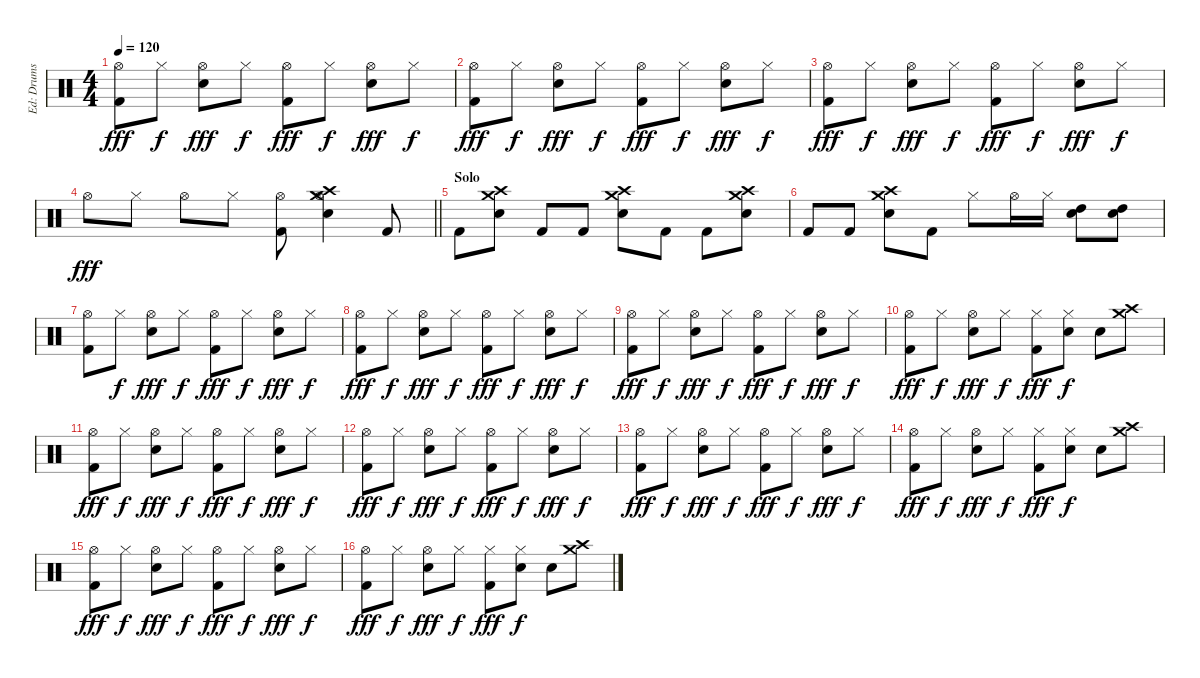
\track ("Ed: Drums" "Ed: Drums") {instrument percussion}
\staff {score}
\articulation defaults
\ts (4 4)
\tempo 120
\clef neutral
\ks c
("Hi-Hat (open)" "Kick (hit) 2").8{dy fff} "Hi-Hat (closed)".8{dy f} ("Hi-Hat (open)" "Electric Snare (hit)").8{dy fff} "Hi-Hat (closed)".8{dy f} ("Hi-Hat (open)" "Kick (hit) 2").8{dy fff} "Hi-Hat (closed)".8{dy f} ("Hi-Hat (open)" "Electric Snare (hit)").8{dy fff} "Hi-Hat (closed)".8{dy f} |
("Hi-Hat (open)" "Kick (hit) 2").8{dy fff} "Hi-Hat (closed)".8{dy f} ("Hi-Hat (open)" "Electric Snare (hit)").8{dy fff} "Hi-Hat (closed)".8{dy f} ("Hi-Hat (open)" "Kick (hit) 2").8{dy fff} "Hi-Hat (closed)".8{dy f} ("Hi-Hat (open)" "Electric Snare (hit)").8{dy fff} "Hi-Hat (closed)".8{dy f} |
("Hi-Hat (open)" "Kick (hit) 2").8{dy fff} "Hi-Hat (closed)".8{dy f} ("Hi-Hat (open)" "Electric Snare (hit)").8{dy fff} "Hi-Hat (closed)".8{dy f} ("Hi-Hat (open)" "Kick (hit) 2").8{dy fff} "Hi-Hat (closed)".8{dy f} ("Hi-Hat (open)" "Electric Snare (hit)").8{dy fff} "Hi-Hat (closed)".8{dy f} |
\barLineRight lightlight "Hi-Hat (open)".8{dy fff} "Hi-Hat (closed)".8 "Hi-Hat (open)".8 "Hi-Hat (closed)".8
("Hi-Hat (open)" "Kick (hit) 2").8 ("Crash medium (hit)" "Crash high (hit)" "Hi-Hat (open)" "Electric Snare (hit)").4 "Kick (hit) 2".8 |
\section ("" "Solo")
"Kick (hit) 2".8 ("Crash medium (hit)" "Crash high (hit)" "Electric Snare (hit)").8 "Kick (hit) 2".8 "Kick (hit) 2".8 ("Crash medium (hit)" "Crash high (hit)" "Electric Snare (hit)").8 "Kick (hit) 2".8 "Kick (hit) 2".8 ("Crash medium (hit)" "Crash high (hit)" "Electric Snare (hit)").8 |
"Kick (hit) 2".8 "Kick (hit) 2".8 ("Crash medium (hit)" "Crash high (hit)" "Electric Snare (hit)").8 "Kick (hit) 2".8 "Hi-Hat (closed)".8 "Hi-Hat (open)".16 "Hi-Hat (closed)".16 ("Snare (hit) 2" "High Tom (hit)").8 ("Snare (hit) 2" "High Tom (hit)").8 |
("Hi-Hat (open)" "Kick (hit) 2").8 "Hi-Hat (closed)".8{dy f} ("Hi-Hat (open)" "Electric Snare (hit)").8{dy fff} "Hi-Hat (closed)".8{dy f} ("Hi-Hat (open)" "Kick (hit) 2").8{dy fff} "Hi-Hat (closed)".8{dy f} ("Hi-Hat (open)" "Electric Snare (hit)").8{dy fff} "Hi-Hat (closed)".8{dy f} |
("Hi-Hat (open)" "Kick (hit) 2").8{dy fff} "Hi-Hat (closed)".8{dy f} ("Hi-Hat (open)" "Electric Snare (hit)").8{dy fff} "Hi-Hat (closed)".8{dy f} ("Hi-Hat (open)" "Kick (hit) 2").8{dy fff} "Hi-Hat (closed)".8{dy f} ("Hi-Hat (open)" "Electric Snare (hit)").8{dy fff} "Hi-Hat (closed)".8{dy f} |
("Hi-Hat (open)" "Kick (hit) 2").8{dy fff} "Hi-Hat (closed)".8{dy f} ("Hi-Hat (open)" "Electric Snare (hit)").8{dy fff} "Hi-Hat (closed)".8{dy f} ("Hi-Hat (open)" "Kick (hit) 2").8{dy fff} "Hi-Hat (closed)".8{dy f} ("Hi-Hat (open)" "Electric Snare (hit)").8{dy fff} "Hi-Hat (closed)".8{dy f} |
("Hi-Hat (open)" "Kick (hit) 2").8{dy fff} "Hi-Hat (closed)".8{dy f} ("Hi-Hat (open)" "Electric Snare (hit)").8{dy fff} "Hi-Hat (closed)".8{dy f} ("Hi-Hat (closed)" "Kick (hit) 2").8{dy fff} ("Hi-Hat (closed)" "Electric Snare (hit)").8{dy f} "Electric Snare (hit)".8 ("Crash medium (hit)" "Crash high (hit)").8 |
("Hi-Hat (open)" "Kick (hit) 2").8{dy fff} "Hi-Hat (closed)".8{dy f} ("Hi-Hat (open)" "Electric Snare (hit)").8{dy fff} "Hi-Hat (closed)".8{dy f} ("Hi-Hat (open)" "Kick (hit) 2").8{dy fff} "Hi-Hat (closed)".8{dy f} ("Hi-Hat (open)" "Electric Snare (hit)").8{dy fff} "Hi-Hat (closed)".8{dy f} |
("Hi-Hat (open)" "Kick (hit) 2").8{dy fff} "Hi-Hat (closed)".8{dy f} ("Hi-Hat (open)" "Electric Snare (hit)").8{dy fff} "Hi-Hat (closed)".8{dy f} ("Hi-Hat (open)" "Kick (hit) 2").8{dy fff} "Hi-Hat (closed)".8{dy f} ("Hi-Hat (open)" "Electric Snare (hit)").8{dy fff} "Hi-Hat (closed)".8{dy f} |
("Hi-Hat (open)" "Kick (hit) 2").8{dy fff} "Hi-Hat (closed)".8{dy f} ("Hi-Hat (open)" "Electric Snare (hit)").8{dy fff} "Hi-Hat (closed)".8{dy f} ("Hi-Hat (open)" "Kick (hit) 2").8{dy fff} "Hi-Hat (closed)".8{dy f} ("Hi-Hat (open)" "Electric Snare (hit)").8{dy fff} "Hi-Hat (closed)".8{dy f} |
("Hi-Hat (open)" "Kick (hit) 2").8{dy fff} "Hi-Hat (closed)".8{dy f} ("Hi-Hat (open)" "Electric Snare (hit)").8{dy fff} "Hi-Hat (closed)".8{dy f} ("Hi-Hat (closed)" "Kick (hit) 2").8{dy fff} ("Hi-Hat (closed)" "Electric Snare (hit)").8{dy f} "Electric Snare (hit)".8 ("Crash medium (hit)" "Crash high (hit)").8 |
("Hi-Hat (open)" "Kick (hit) 2").8{dy fff} "Hi-Hat (closed)".8{dy f} ("Hi-Hat (open)" "Electric Snare (hit)").8{dy fff} "Hi-Hat (closed)".8{dy f} ("Hi-Hat (open)" "Kick (hit) 2").8{dy fff} "Hi-Hat (closed)".8{dy f} ("Hi-Hat (open)" "Electric Snare (hit)").8{dy fff} "Hi-Hat (closed)".8{dy f} |
("Hi-Hat (open)" "Kick (hit) 2").8{dy fff} "Hi-Hat (closed)".8{dy f} ("Hi-Hat (open)" "Electric Snare (hit)").8{dy fff} "Hi-Hat (closed)".8{dy f} ("Hi-Hat (closed)" "Kick (hit) 2").8{dy fff} ("Hi-Hat (closed)" "Electric Snare (hit)").8{dy f} "Electric Snare (hit)".8 ("Crash medium (hit)" "Crash high (hit)").8
